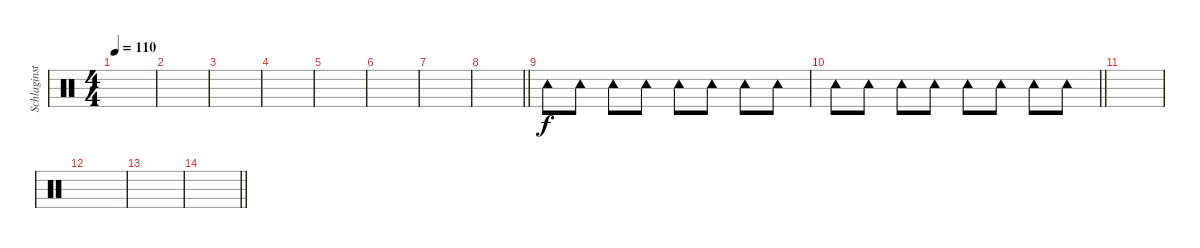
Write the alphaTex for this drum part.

\track ("Schlaginstrumente - Auswahl" "Schlaginst") {instrument percussion}
\staff {score}
\articulation defaults
\ts (4 4)
\tempo 110
\clef neutral
\ks c
|
|
|
|
|
|
|
\barLineRight lightlight
|
"Tambourine (hit)".8{balance 16} "Tambourine (hit)".8 "Tambourine (hit)".8 "Tambourine (hit)".8 "Tambourine (hit)".8 "Tambourine (hit)".8 "Tambourine (hit)".8 "Tambourine (hit)".8 |
\barLineRight lightlight "Tambourine (hit)".8{balance 16} "Tambourine (hit)".8 "Tambourine (hit)".8 "Tambourine (hit)".8 "Tambourine (hit)".8 "Tambourine (hit)".8 "Tambourine (hit)".8 "Tambourine (hit)".8
|
|
|
|
\barLineRight lightlight
